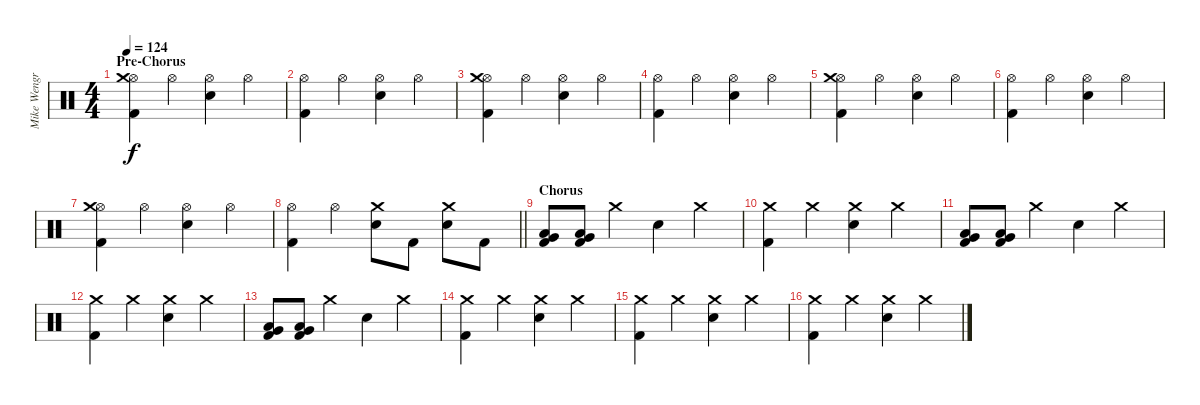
\track ("Mike Wengren" "Mike Wengr") {instrument percussion}
\staff {score}
\articulation defaults
\ts (4 4)
\section ("" "Pre-Chorus")
\tempo 124
\clef neutral
\ks c
("Kick (hit) 2" "Hi-Hat (open)" "Crash medium (hit)").4{dy f} "Hi-Hat (open)".4 ("Electric Snare (hit)" "Hi-Hat (open)").4 "Hi-Hat (open)".4 |
("Kick (hit) 2" "Hi-Hat (open)").4 "Hi-Hat (open)".4 ("Electric Snare (hit)" "Hi-Hat (open)").4 "Hi-Hat (open)".4 |
("Kick (hit) 2" "Hi-Hat (open)" "Crash medium (hit)").4 "Hi-Hat (open)".4 ("Electric Snare (hit)" "Hi-Hat (open)").4 "Hi-Hat (open)".4 |
("Kick (hit) 2" "Hi-Hat (open)").4 "Hi-Hat (open)".4 ("Electric Snare (hit)" "Hi-Hat (open)").4 "Hi-Hat (open)".4 |
("Kick (hit) 2" "Hi-Hat (open)" "Crash medium (hit)").4 "Hi-Hat (open)".4 ("Electric Snare (hit)" "Hi-Hat (open)").4 "Hi-Hat (open)".4 |
("Kick (hit) 2" "Hi-Hat (open)").4 "Hi-Hat (open)".4 ("Electric Snare (hit)" "Hi-Hat (open)").4 "Hi-Hat (open)".4 |
("Kick (hit) 2" "Hi-Hat (open)" "Crash medium (hit)").4 "Hi-Hat (open)".4 ("Electric Snare (hit)" "Hi-Hat (open)").4 "Hi-Hat (open)".4 |
\barLineRight lightlight
("Kick (hit) 2" "Hi-Hat (open)").4 "Hi-Hat (open)".4 ("Electric Snare (hit)" "Crash medium (hit)").8 "Kick (hit) 2".8 ("Electric Snare (hit)" "Crash medium (hit)").8 "Kick (hit) 2".8 |
\section ("" "Chorus")
("Kick (hit) 2" "Very Low Tom (hit)" "Low Tom (hit)").8 ("Kick (hit) 2" "Very Low Tom (hit)" "Low Tom (hit)").8 "Crash medium (hit)".4 "Electric Snare (hit)".4 "Crash medium (hit)".4 |
("Kick (hit) 2" "Crash medium (hit)").4 "Crash medium (hit)".4 ("Electric Snare (hit)" "Crash medium (hit)").4 "Crash medium (hit)".4 |
("Kick (hit) 2" "Very Low Tom (hit)" "Low Tom (hit)").8 ("Kick (hit) 2" "Very Low Tom (hit)" "Low Tom (hit)").8 "Crash medium (hit)".4 "Electric Snare (hit)".4 "Crash medium (hit)".4 |
("Kick (hit) 2" "Crash medium (hit)").4 "Crash medium (hit)".4 ("Electric Snare (hit)" "Crash medium (hit)").4 "Crash medium (hit)".4 |
("Kick (hit) 2" "Very Low Tom (hit)" "Low Tom (hit)").8 ("Kick (hit) 2" "Very Low Tom (hit)" "Low Tom (hit)").8 "Crash medium (hit)".4 "Electric Snare (hit)".4 "Crash medium (hit)".4 |
("Kick (hit) 2" "Crash medium (hit)").4 "Crash medium (hit)".4 ("Electric Snare (hit)" "Crash medium (hit)").4 "Crash medium (hit)".4 |
("Kick (hit) 2" "Crash medium (hit)").4 "Crash medium (hit)".4 ("Electric Snare (hit)" "Crash medium (hit)").4 "Crash medium (hit)".4 |
("Kick (hit) 2" "Crash medium (hit)").4 "Crash medium (hit)".4 ("Electric Snare (hit)" "Crash medium (hit)").4 "Crash medium (hit)".4
